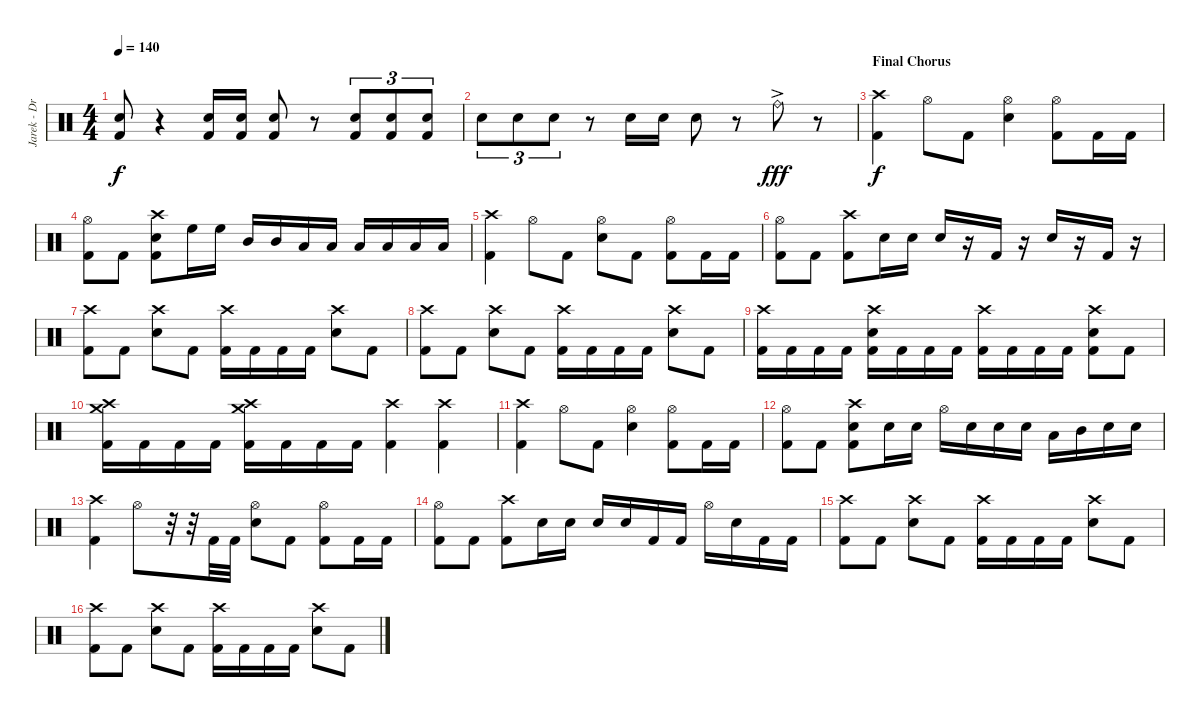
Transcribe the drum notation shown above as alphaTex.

\track ("Jarek - Drums" "Jarek - Dr") {instrument percussion}
\staff {score}
\articulation defaults
\ts (4 4)
\tempo 140
\clef neutral
\ks c
("Snare (hit) 2" "Kick (hit) 2").8{dy f} r.4 ("Snare (hit) 2" "Kick (hit) 2").16 ("Snare (hit) 2" "Kick (hit) 2").16 ("Snare (hit) 2" "Kick (hit) 2").8 r.8 ("Snare (hit) 2" "Kick (hit) 2").8{tu (3 2)} ("Snare (hit) 2" "Kick (hit) 2").8{tu (3 2)} ("Snare (hit) 2" "Kick (hit) 2").8{tu (3 2)} |
"Snare (hit) 2".8{tu (3 2)} "Snare (hit) 2".8{tu (3 2)} "Snare (hit) 2".8{tu (3 2)} r.8 "Snare (hit) 2".16 "Snare (hit) 2".16 "Snare (hit) 2".8 r.8 "Ride (bell)"{ac}.8{dy fff} r.8 |
\section ("" "Final Chorus")
("Crash high (hit)" "Kick (hit) 2").4{dy f} "Hi-Hat (open)".8 "Kick (hit) 2".8 ("Hi-Hat (open)" "Snare (hit) 2").4 ("Hi-Hat (open)" "Kick (hit) 2").8 "Kick (hit) 2".16 "Kick (hit) 2".16 |
("Hi-Hat (open)" "Kick (hit) 2").8 "Kick (hit) 2".8 ("Crash high (hit)" "Snare (hit) 2" "Kick (hit) 2").8 "High Floor Tom (hit)".16 "High Floor Tom (hit)".16 "Mid Tom (hit)".16 "Mid Tom (hit)".16 "Low Tom (hit)".16 "Low Tom (hit)".16 "Low Tom (hit)".16 "Low Floor Tom (hit)".16 "Low Floor Tom (hit)".16 "Low Floor Tom (hit)".16 |
("Crash high (hit)" "Kick (hit) 2").4 "Hi-Hat (open)".8 "Kick (hit) 2".8 ("Hi-Hat (open)" "Snare (hit) 2").8 "Kick (hit) 2".8 ("Hi-Hat (open)" "Kick (hit) 2").8 "Kick (hit) 2".16 "Kick (hit) 2".16 |
("Hi-Hat (open)" "Kick (hit) 2").8 "Kick (hit) 2".8 ("Crash high (hit)" "Kick (hit) 2").8 "Snare (hit) 2".16 "Snare (hit) 2".16 "Snare (hit) 2".16 r.16 "Kick (hit) 2".16 r.16 "Snare (hit) 2".16 r.16 "Kick (hit) 2".16 r.16 |
("Crash high (hit)" "Kick (hit) 2").8 "Kick (hit) 2".8 ("Crash high (hit)" "Snare (hit) 2").8 "Kick (hit) 2".8 ("Crash high (hit)" "Kick (hit) 2").16 "Kick (hit) 2".16 "Kick (hit) 2".16 "Kick (hit) 2".16 ("Crash high (hit)" "Snare (hit) 2").8 "Kick (hit) 2".8 |
("Crash high (hit)" "Kick (hit) 2").8 "Kick (hit) 2".8 ("Crash high (hit)" "Snare (hit) 2").8 "Kick (hit) 2".8 ("Crash high (hit)" "Kick (hit) 2").16 "Kick (hit) 2".16 "Kick (hit) 2".16 "Kick (hit) 2".16 ("Crash high (hit)" "Snare (hit) 2").8 "Kick (hit) 2".8 |
("Crash high (hit)" "Kick (hit) 2").16 "Kick (hit) 2".16 "Kick (hit) 2".16 "Kick (hit) 2".16 ("Crash high (hit)" "Snare (hit) 2" "Kick (hit) 2").16 "Kick (hit) 2".16 "Kick (hit) 2".16 "Kick (hit) 2".16 ("Crash high (hit)" "Kick (hit) 2").16 "Kick (hit) 2".16 "Kick (hit) 2".16 "Kick (hit) 2".16 ("Crash high (hit)" "Snare (hit) 2" "Kick (hit) 2").8 "Kick (hit) 2".8 |
("Crash high (hit)" "Crash medium (hit)" "Kick (hit) 2").16 "Kick (hit) 2".16 "Kick (hit) 2".16 "Kick (hit) 2".16 ("Crash high (hit)" "Crash medium (hit)" "Kick (hit) 2").16 "Kick (hit) 2".16 "Kick (hit) 2".16 "Kick (hit) 2".16 ("Crash high (hit)" "Kick (hit) 2").4 ("Crash high (hit)" "Kick (hit) 2").4 |
("Crash high (hit)" "Kick (hit) 2").4 "Hi-Hat (open)".8 "Kick (hit) 2".8 ("Hi-Hat (open)" "Snare (hit) 2").4 ("Hi-Hat (open)" "Kick (hit) 2").8 "Kick (hit) 2".16 "Kick (hit) 2".16 |
("Hi-Hat (open)" "Kick (hit) 2").8 "Kick (hit) 2".8 ("Crash high (hit)" "Snare (hit) 2" "Kick (hit) 2").8 "Snare (hit) 2".16 "Snare (hit) 2".16 "Hi-Hat (open)".16 "Snare (hit) 2".16 "Snare (hit) 2".16 "Snare (hit) 2".16 "Low Tom (hit)".16 "Mid Tom (hit)".16 "Snare (hit) 2".16 "Snare (hit) 2".16 |
("Crash high (hit)" "Kick (hit) 2").4 "Hi-Hat (open)".8 r.32 r.32 "Kick (hit) 2".32 "Kick (hit) 2".32 ("Hi-Hat (open)" "Snare (hit) 2").8 "Kick (hit) 2".8 ("Hi-Hat (open)" "Kick (hit) 2").8 "Kick (hit) 2".16 "Kick (hit) 2".16 |
("Hi-Hat (open)" "Kick (hit) 2").8 "Kick (hit) 2".8 ("Crash high (hit)" "Kick (hit) 2").8 "Snare (hit) 2".16 "Snare (hit) 2".16 "Snare (hit) 2".16 "Snare (hit) 2".16 "Kick (hit) 2".16 "Kick (hit) 2".16 "Hi-Hat (open)".16 "Snare (hit) 2".16 "Kick (hit) 2".16 "Kick (hit) 2".16 |
("Crash high (hit)" "Kick (hit) 2").8 "Kick (hit) 2".8 ("Crash high (hit)" "Snare (hit) 2").8 "Kick (hit) 2".8 ("Crash high (hit)" "Kick (hit) 2").16 "Kick (hit) 2".16 "Kick (hit) 2".16 "Kick (hit) 2".16 ("Crash high (hit)" "Snare (hit) 2").8 "Kick (hit) 2".8 |
("Crash high (hit)" "Kick (hit) 2").8 "Kick (hit) 2".8 ("Crash high (hit)" "Snare (hit) 2").8 "Kick (hit) 2".8 ("Crash high (hit)" "Kick (hit) 2").16 "Kick (hit) 2".16 "Kick (hit) 2".16 "Kick (hit) 2".16 ("Crash high (hit)" "Snare (hit) 2").8 "Kick (hit) 2".8
